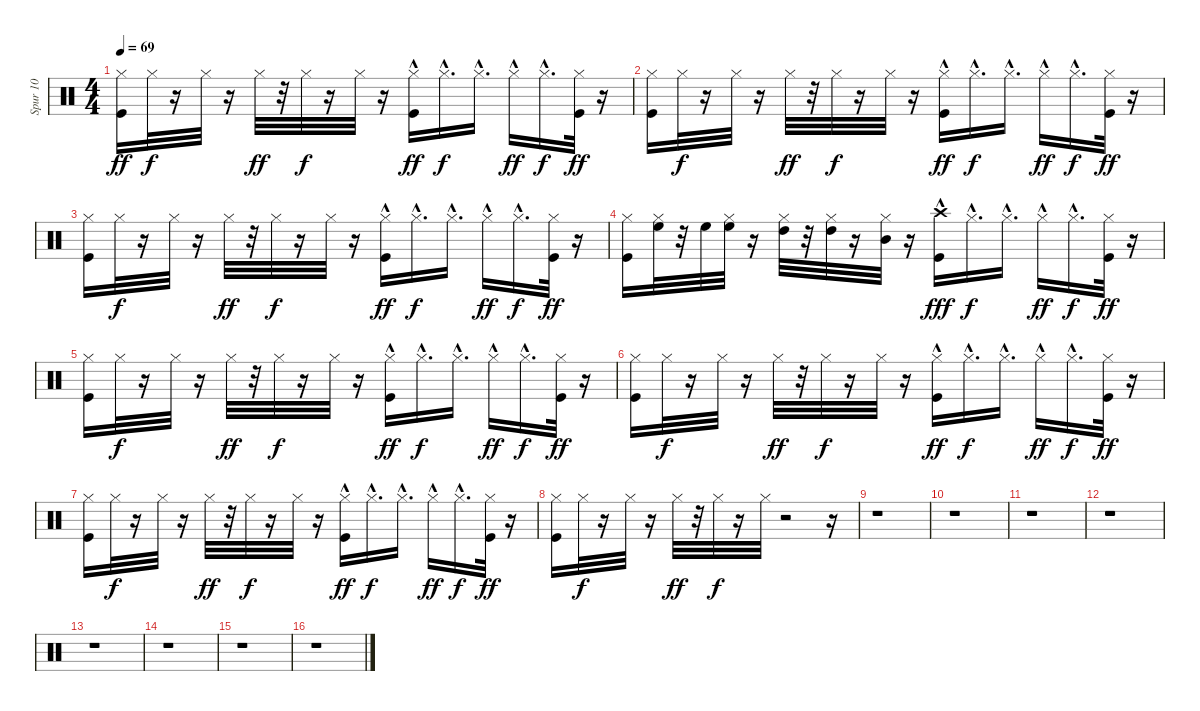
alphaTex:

\track ("Spur 10" "Spur 10") {instrument percussion}
\staff {score}
\articulation defaults
\ts (4 4)
\tempo 69
\clef neutral
\ks c
("Kick (hit)" "Hi-Hat (closed)").16{dy ff} "Hi-Hat (closed)".32{dy f} r.16 "Hi-Hat (closed)".32 r.16 "Hi-Hat (closed)".32{dy ff} r.32 "Hi-Hat (closed)".32{dy f} r.16 "Hi-Hat (closed)".32 r.16 ("Kick (hit)"{hac} "Hi-Hat (closed)").16{dy ff} "Hi-Hat (closed)"{hac}.16{d dy f} "Hi-Hat (closed)"{hac}.16{d} "Hi-Hat (closed)"{hac}.16{dy ff} "Hi-Hat (closed)"{hac}.16{d dy f} ("Kick (hit)" "Hi-Hat (closed)").32{dy ff} r.16 |
("Kick (hit)" "Hi-Hat (closed)").16 "Hi-Hat (closed)".32{dy f} r.16 "Hi-Hat (closed)".32 r.16 "Hi-Hat (closed)".32{dy ff} r.32 "Hi-Hat (closed)".32{dy f} r.16 "Hi-Hat (closed)".32 r.16 ("Kick (hit)"{hac} "Hi-Hat (closed)").16{dy ff} "Hi-Hat (closed)"{hac}.16{d dy f} "Hi-Hat (closed)"{hac}.16{d} "Hi-Hat (closed)"{hac}.16{dy ff} "Hi-Hat (closed)"{hac}.16{d dy f} ("Kick (hit)" "Hi-Hat (closed)").32{dy ff} r.16 |
("Kick (hit)" "Hi-Hat (closed)").16 "Hi-Hat (closed)".32{dy f} r.16 "Hi-Hat (closed)".32 r.16 "Hi-Hat (closed)".32{dy ff} r.32 "Hi-Hat (closed)".32{dy f} r.16 "Hi-Hat (closed)".32 r.16 ("Kick (hit)"{hac} "Hi-Hat (closed)").16{dy ff} "Hi-Hat (closed)"{hac}.16{d dy f} "Hi-Hat (closed)"{hac}.16{d} "Hi-Hat (closed)"{hac}.16{dy ff} "Hi-Hat (closed)"{hac}.16{d dy f} ("Kick (hit)" "Hi-Hat (closed)").32{dy ff} r.16 |
("Kick (hit)" "Hi-Hat (closed)").16 ("Hi-Hat (closed)" "High Floor Tom (hit)").32 r.32 "High Floor Tom (hit)".32 ("Hi-Hat (closed)" "High Floor Tom (hit)").32 r.16 ("Hi-Hat (closed)" "High Tom (hit)").32 r.32 ("Hi-Hat (closed)" "High Tom (hit)").32 r.16 ("Hi-Hat (closed)" "Mid Tom (hit)").32 r.16 ("Kick (hit)"{hac} "Crash high (hit)").16{dy fff} "Hi-Hat (closed)"{hac}.16{d dy f} "Hi-Hat (closed)"{hac}.16{d} "Hi-Hat (closed)"{hac}.16{dy ff} "Hi-Hat (closed)"{hac}.16{d dy f} ("Kick (hit)" "Hi-Hat (closed)").32{dy ff} r.16 |
("Kick (hit)" "Hi-Hat (closed)").16 "Hi-Hat (closed)".32{dy f} r.16 "Hi-Hat (closed)".32 r.16 "Hi-Hat (closed)".32{dy ff} r.32 "Hi-Hat (closed)".32{dy f} r.16 "Hi-Hat (closed)".32 r.16 ("Kick (hit)"{hac} "Hi-Hat (closed)").16{dy ff} "Hi-Hat (closed)"{hac}.16{d dy f} "Hi-Hat (closed)"{hac}.16{d} "Hi-Hat (closed)"{hac}.16{dy ff} "Hi-Hat (closed)"{hac}.16{d dy f} ("Kick (hit)" "Hi-Hat (closed)").32{dy ff} r.16 |
("Kick (hit)" "Hi-Hat (closed)").16 "Hi-Hat (closed)".32{dy f} r.16 "Hi-Hat (closed)".32 r.16 "Hi-Hat (closed)".32{dy ff} r.32 "Hi-Hat (closed)".32{dy f} r.16 "Hi-Hat (closed)".32 r.16 ("Kick (hit)"{hac} "Hi-Hat (closed)").16{dy ff} "Hi-Hat (closed)"{hac}.16{d dy f} "Hi-Hat (closed)"{hac}.16{d} "Hi-Hat (closed)"{hac}.16{dy ff} "Hi-Hat (closed)"{hac}.16{d dy f} ("Kick (hit)" "Hi-Hat (closed)").32{dy ff} r.16 |
("Kick (hit)" "Hi-Hat (closed)").16 "Hi-Hat (closed)".32{dy f} r.16 "Hi-Hat (closed)".32 r.16 "Hi-Hat (closed)".32{dy ff} r.32 "Hi-Hat (closed)".32{dy f} r.16 "Hi-Hat (closed)".32 r.16 ("Kick (hit)"{hac} "Hi-Hat (closed)").16{dy ff} "Hi-Hat (closed)"{hac}.16{d dy f} "Hi-Hat (closed)"{hac}.16{d} "Hi-Hat (closed)"{hac}.16{dy ff} "Hi-Hat (closed)"{hac}.16{d dy f} ("Kick (hit)" "Hi-Hat (closed)").32{dy ff} r.16 |
("Kick (hit)" "Hi-Hat (closed)").16 "Hi-Hat (closed)".32{dy f} r.16 "Hi-Hat (closed)".32 r.16 "Hi-Hat (closed)".32{dy ff} r.32 "Hi-Hat (closed)".32{dy f} r.16 "Hi-Hat (closed)".32 r.2 r.16 |
r.1 |
r.1 |
r.1 |
r.1 |
r.1 |
r.1 |
r.1 |
r.1
